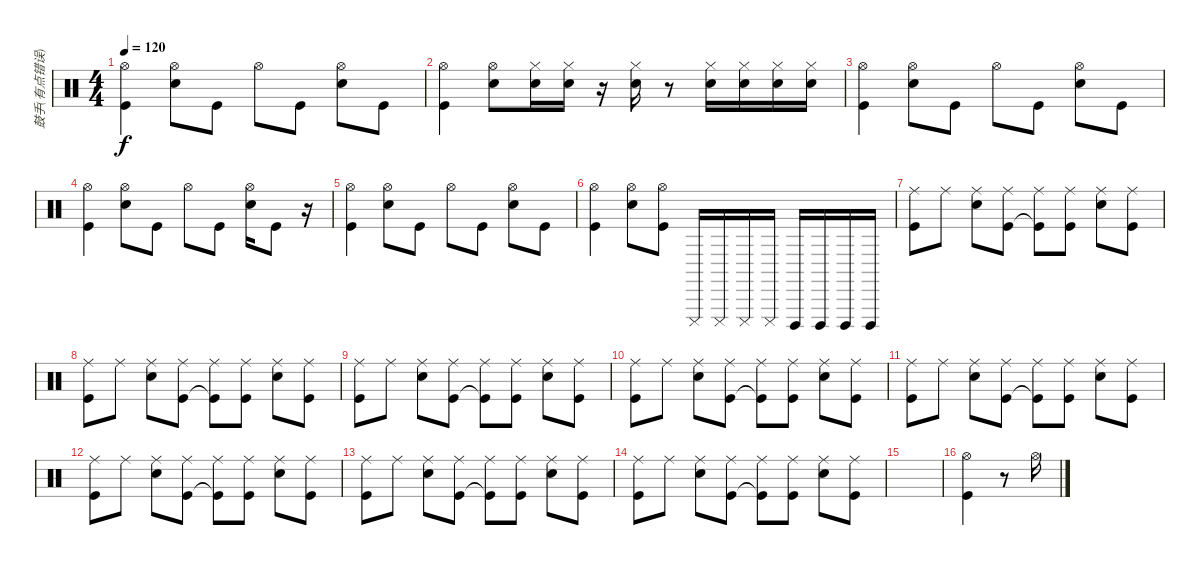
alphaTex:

\track ("鼓手(有点错误)" "鼓手(有点错误)") {instrument percussion}
\staff {score}
\articulation defaults
\ts (4 4)
\tempo 120
\clef neutral
\ks c
("Hi-Hat (open)" "Kick (hit)").4{dy f} ("Hi-Hat (open)" "Electric Snare (hit)").8 "Kick (hit)".8 "Hi-Hat (open)".8 "Kick (hit)".8 ("Hi-Hat (open)" "Electric Snare (hit)").8 "Kick (hit)".8 |
("Hi-Hat (open)" "Kick (hit)").4 ("Hi-Hat (open)" "Electric Snare (hit)").8 ("Hi-Hat (closed)" "Electric Snare (hit)").16 ("Hi-Hat (closed)" "Electric Snare (hit)").16 r.16 ("Hi-Hat (closed)" "Electric Snare (hit)").16 r.8 ("Hi-Hat (closed)" "Electric Snare (hit)").16 ("Hi-Hat (closed)" "Electric Snare (hit)").16 ("Hi-Hat (closed)" "Electric Snare (hit)").16 ("Hi-Hat (closed)" "Electric Snare (hit)").16 |
("Hi-Hat (open)" "Kick (hit)").4 ("Hi-Hat (open)" "Electric Snare (hit)").8 "Kick (hit)".8 "Hi-Hat (open)".8 "Kick (hit)".8 ("Hi-Hat (open)" "Electric Snare (hit)").8 "Kick (hit)".8 |
("Hi-Hat (open)" "Kick (hit)").4 ("Hi-Hat (open)" "Electric Snare (hit)").8 "Kick (hit)".8 "Hi-Hat (open)".8 "Kick (hit)".8 ("Hi-Hat (open)" "Electric Snare (hit)").16 "Kick (hit)".8 r.16 |
("Hi-Hat (open)" "Kick (hit)").4 ("Hi-Hat (open)" "Electric Snare (hit)").8 "Kick (hit)".8 "Hi-Hat (open)".8 "Kick (hit)".8 ("Hi-Hat (open)" "Electric Snare (hit)").8 "Kick (hit)".8 |
("Hi-Hat (open)" "Kick (hit)").4 ("Hi-Hat (open)" "Electric Snare (hit)").8 ("Hi-Hat (open)" "Kick (hit)").8 "Cuica (mute)".16 "Cuica (mute)".16 "Cuica (mute)".16 "Cuica (mute)".16 "Cuica (open)".16 "Cuica (open)".16 "Cuica (open)".16 "Cuica (open)".16 |
("Ride (middle)" "Kick (hit)").8 "Ride (middle)".8 ("Ride (middle)" "Electric Snare (hit)").8 ("Ride (middle)" "Kick (hit)").8 ("Ride (middle)" "Kick (hit)"{t}).8 ("Ride (middle)" "Kick (hit)").8 ("Ride (middle)" "Electric Snare (hit)").8 ("Ride (middle)" "Kick (hit)").8 |
("Ride (middle)" "Kick (hit)").8 "Ride (middle)".8 ("Ride (middle)" "Electric Snare (hit)").8 ("Ride (middle)" "Kick (hit)").8 ("Ride (middle)" "Kick (hit)"{t}).8 ("Ride (middle)" "Kick (hit)").8 ("Ride (middle)" "Electric Snare (hit)").8 ("Ride (middle)" "Kick (hit)").8 |
("Ride (middle)" "Kick (hit)").8 "Ride (middle)".8 ("Ride (middle)" "Electric Snare (hit)").8 ("Ride (middle)" "Kick (hit)").8 ("Ride (middle)" "Kick (hit)"{t}).8 ("Ride (middle)" "Kick (hit)").8 ("Ride (middle)" "Electric Snare (hit)").8 ("Ride (middle)" "Kick (hit)").8 |
("Ride (middle)" "Kick (hit)").8 "Ride (middle)".8 ("Ride (middle)" "Electric Snare (hit)").8 ("Ride (middle)" "Kick (hit)").8 ("Ride (middle)" "Kick (hit)"{t}).8 ("Ride (middle)" "Kick (hit)").8 ("Ride (middle)" "Electric Snare (hit)").8 ("Ride (middle)" "Kick (hit)").8 |
("Ride (middle)" "Kick (hit)").8 "Ride (middle)".8 ("Ride (middle)" "Electric Snare (hit)").8 ("Ride (middle)" "Kick (hit)").8 ("Ride (middle)" "Kick (hit)"{t}).8 ("Ride (middle)" "Kick (hit)").8 ("Ride (middle)" "Electric Snare (hit)").8 ("Ride (middle)" "Kick (hit)").8 |
("Ride (middle)" "Kick (hit)").8 "Ride (middle)".8 ("Ride (middle)" "Electric Snare (hit)").8 ("Ride (middle)" "Kick (hit)").8 ("Ride (middle)" "Kick (hit)"{t}).8 ("Ride (middle)" "Kick (hit)").8 ("Ride (middle)" "Electric Snare (hit)").8 ("Ride (middle)" "Kick (hit)").8 |
("Ride (middle)" "Kick (hit)").8 "Ride (middle)".8 ("Ride (middle)" "Electric Snare (hit)").8 ("Ride (middle)" "Kick (hit)").8 ("Ride (middle)" "Kick (hit)"{t}).8 ("Ride (middle)" "Kick (hit)").8 ("Ride (middle)" "Electric Snare (hit)").8 ("Ride (middle)" "Kick (hit)").8 |
("Ride (middle)" "Kick (hit)").8 "Ride (middle)".8 ("Ride (middle)" "Electric Snare (hit)").8 ("Ride (middle)" "Kick (hit)").8 ("Ride (middle)" "Kick (hit)"{t}).8 ("Ride (middle)" "Kick (hit)").8 ("Ride (middle)" "Electric Snare (hit)").8 ("Ride (middle)" "Kick (hit)").8 |
|
("Hi-Hat (open)" "Kick (hit)").4 r.8 "Hi-Hat (open)".16
